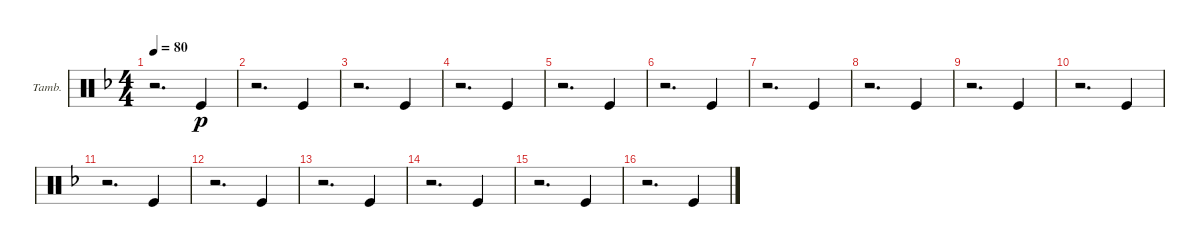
\defaultSystemsLayout 4
\bracketExtendMode groupsimilarinstruments
\firstSystemTrackNameOrientation horizontal
\otherSystemsTrackNameOrientation horizontal
\track ("Tambourine" "Tamb.") {instrument percussion}
\staff {score}
\articulation defaults
\ts (4 4)
\tempo 80
\clef neutral
\ks f
r.2{d dy p} "Kick (hit)".4 |
r.2{d} "Kick (hit)".4 |
r.2{d} "Kick (hit)".4 |
r.2{d} "Kick (hit)".4 |
r.2{d} "Kick (hit)".4 |
r.2{d} "Kick (hit)".4 |
r.2{d} "Kick (hit)".4 |
r.2{d} "Kick (hit)".4 |
r.2{d} "Kick (hit)".4 |
r.2{d} "Kick (hit)".4 |
r.2{d} "Kick (hit)".4 |
r.2{d} "Kick (hit)".4 |
r.2{d} "Kick (hit)".4 |
r.2{d} "Kick (hit)".4 |
r.2{d} "Kick (hit)".4 |
r.2{d} "Kick (hit)".4
